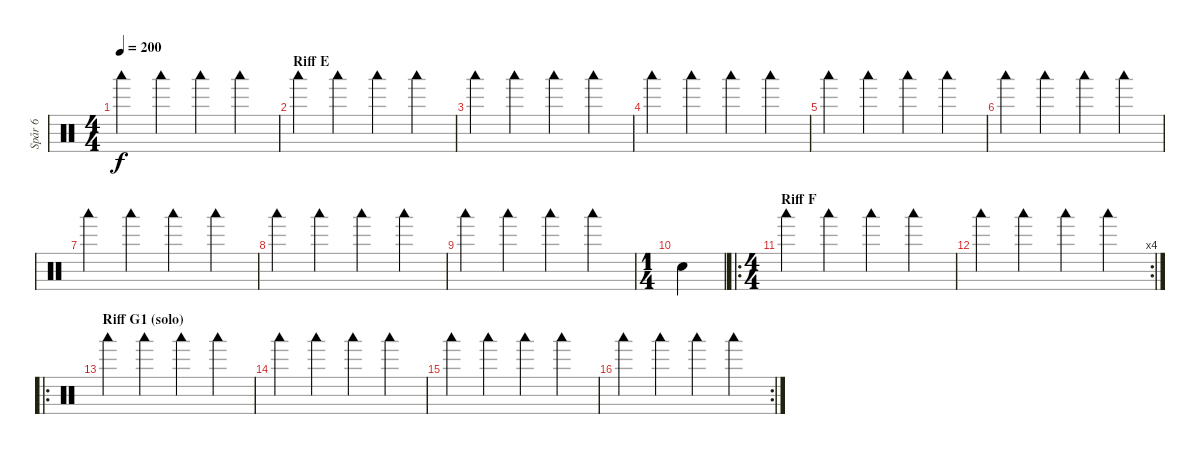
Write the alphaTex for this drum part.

\track ("Spår 6" "Spår 6") {instrument percussion}
\staff {score}
\articulation defaults
\ts (4 4)
\tempo 200
\clef neutral
\ks c "Woodblock low (hit)".4{dy f} "Woodblock low (hit)".4 "Woodblock low (hit)".4 "Woodblock low (hit)".4
|
\section ("" "Riff E")
"Woodblock low (hit)".4 "Woodblock low (hit)".4 "Woodblock low (hit)".4 "Woodblock low (hit)".4 |
"Woodblock low (hit)".4 "Woodblock low (hit)".4 "Woodblock low (hit)".4 "Woodblock low (hit)".4 |
"Woodblock low (hit)".4 "Woodblock low (hit)".4 "Woodblock low (hit)".4 "Woodblock low (hit)".4 |
"Woodblock low (hit)".4 "Woodblock low (hit)".4 "Woodblock low (hit)".4 "Woodblock low (hit)".4 |
"Woodblock low (hit)".4 "Woodblock low (hit)".4 "Woodblock low (hit)".4 "Woodblock low (hit)".4 |
"Woodblock low (hit)".4 "Woodblock low (hit)".4 "Woodblock low (hit)".4 "Woodblock low (hit)".4 |
"Woodblock low (hit)".4 "Woodblock low (hit)".4 "Woodblock low (hit)".4 "Woodblock low (hit)".4 |
"Woodblock low (hit)".4 "Woodblock low (hit)".4 "Woodblock low (hit)".4 "Woodblock low (hit)".4 |
\ts (1 4)
"Electric Snare (hit)".4 |
\ro
\ts (4 4)
\section ("" "Riff F")
"Woodblock low (hit)".4 "Woodblock low (hit)".4 "Woodblock low (hit)".4 "Woodblock low (hit)".4 |
\rc 4 "Woodblock low (hit)".4 "Woodblock low (hit)".4 "Woodblock low (hit)".4 "Woodblock low (hit)".4
|
\ro
\section ("" "Riff G1 (solo)")
"Woodblock low (hit)".4 "Woodblock low (hit)".4 "Woodblock low (hit)".4 "Woodblock low (hit)".4 |
"Woodblock low (hit)".4 "Woodblock low (hit)".4 "Woodblock low (hit)".4 "Woodblock low (hit)".4 |
"Woodblock low (hit)".4 "Woodblock low (hit)".4 "Woodblock low (hit)".4 "Woodblock low (hit)".4 |
\rc 2 "Woodblock low (hit)".4 "Woodblock low (hit)".4 "Woodblock low (hit)".4 "Woodblock low (hit)".4
